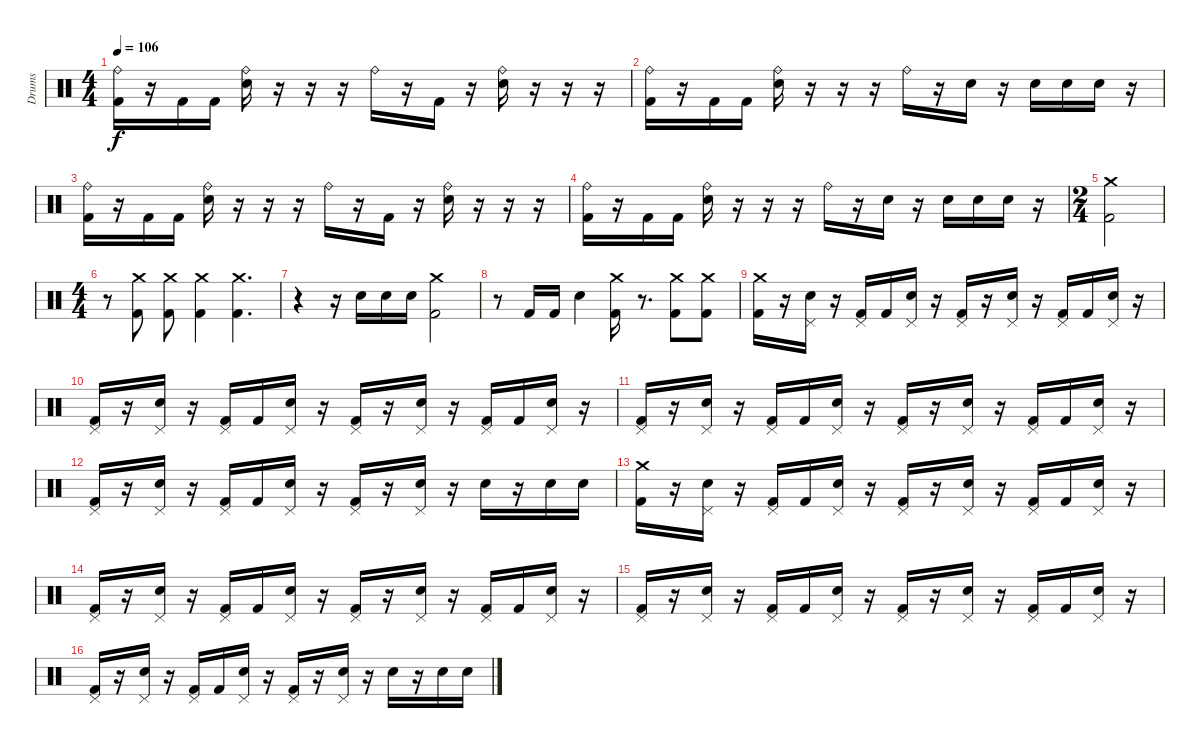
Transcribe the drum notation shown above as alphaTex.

\track ("Drums" "Drums") {instrument percussion}
\staff {score}
\articulation defaults
\ts (4 4)
\tempo 106
\clef neutral
\ks c
("Kick (hit) 2" "Ride (bell)").16{dy f} r.16 "Kick (hit) 2".16 "Kick (hit) 2".16 ("Ride (bell)" "Electric Snare (hit)").16 r.16 r.16 r.16 "Ride (bell)".16 r.16 "Kick (hit) 2".16 r.16 ("Ride (bell)" "Electric Snare (hit)").16 r.16 r.16 r.16 |
("Kick (hit) 2" "Ride (bell)").16 r.16 "Kick (hit) 2".16 "Kick (hit) 2".16 ("Ride (bell)" "Electric Snare (hit)").16 r.16 r.16 r.16 "Ride (bell)".16 r.16 "Electric Snare (hit)".16 r.16 "Electric Snare (hit)".16 "Electric Snare (hit)".16 "Electric Snare (hit)".16 r.16 |
("Kick (hit) 2" "Ride (bell)").16 r.16 "Kick (hit) 2".16 "Kick (hit) 2".16 ("Ride (bell)" "Electric Snare (hit)").16 r.16 r.16 r.16 "Ride (bell)".16 r.16 "Kick (hit) 2".16 r.16 ("Ride (bell)" "Electric Snare (hit)").16 r.16 r.16 r.16 |
("Kick (hit) 2" "Ride (bell)").16 r.16 "Kick (hit) 2".16 "Kick (hit) 2".16 ("Ride (bell)" "Electric Snare (hit)").16 r.16 r.16 r.16 "Ride (bell)".16 r.16 "Electric Snare (hit)".16 r.16 "Electric Snare (hit)".16 "Electric Snare (hit)".16 "Electric Snare (hit)".16 r.16 |
\ts (2 4)
("Kick (hit) 2" "Crash medium (hit)").2 |
\ts (4 4)
r.8 ("Kick (hit) 2" "Crash medium (hit)").8 ("Kick (hit) 2" "Crash medium (hit)").8 ("Kick (hit) 2" "Crash medium (hit)").4 ("Kick (hit) 2" "Crash medium (hit)").4{d} |
r.4 r.16 "Electric Snare (hit)".16 "Electric Snare (hit)".16 "Electric Snare (hit)".16 ("Kick (hit) 2" "Crash medium (hit)").2 |
r.8 "Kick (hit) 2".16 "Kick (hit) 2".16 "Electric Snare (hit)".4 ("Kick (hit) 2" "Crash medium (hit)").16 r.8{d} ("Kick (hit) 2" "Crash medium (hit)").8 ("Kick (hit) 2" "Crash medium (hit)").8 |
("Kick (hit) 2" "Crash medium (hit)").16 r.16 ("Pedal Hi-Hat (hit)" "Electric Snare (hit)").16 r.16 ("Kick (hit) 2" "Pedal Hi-Hat (hit)").16 "Kick (hit) 2".16 ("Pedal Hi-Hat (hit)" "Electric Snare (hit)").16 r.16 ("Kick (hit) 2" "Pedal Hi-Hat (hit)").16 r.16 ("Pedal Hi-Hat (hit)" "Electric Snare (hit)").16 r.16 ("Kick (hit) 2" "Pedal Hi-Hat (hit)").16 "Kick (hit) 2".16 ("Pedal Hi-Hat (hit)" "Electric Snare (hit)").16 r.16 |
("Kick (hit) 2" "Pedal Hi-Hat (hit)").16 r.16 ("Pedal Hi-Hat (hit)" "Electric Snare (hit)").16 r.16 ("Kick (hit) 2" "Pedal Hi-Hat (hit)").16 "Kick (hit) 2".16 ("Pedal Hi-Hat (hit)" "Electric Snare (hit)").16 r.16 ("Kick (hit) 2" "Pedal Hi-Hat (hit)").16 r.16 ("Pedal Hi-Hat (hit)" "Electric Snare (hit)").16 r.16 ("Kick (hit) 2" "Pedal Hi-Hat (hit)").16 "Kick (hit) 2".16 ("Pedal Hi-Hat (hit)" "Electric Snare (hit)").16 r.16 |
("Kick (hit) 2" "Pedal Hi-Hat (hit)").16 r.16 ("Pedal Hi-Hat (hit)" "Electric Snare (hit)").16 r.16 ("Kick (hit) 2" "Pedal Hi-Hat (hit)").16 "Kick (hit) 2".16 ("Pedal Hi-Hat (hit)" "Electric Snare (hit)").16 r.16 ("Kick (hit) 2" "Pedal Hi-Hat (hit)").16 r.16 ("Pedal Hi-Hat (hit)" "Electric Snare (hit)").16 r.16 ("Kick (hit) 2" "Pedal Hi-Hat (hit)").16 "Kick (hit) 2".16 ("Pedal Hi-Hat (hit)" "Electric Snare (hit)").16 r.16 |
("Kick (hit) 2" "Pedal Hi-Hat (hit)").16 r.16 ("Pedal Hi-Hat (hit)" "Electric Snare (hit)").16 r.16 ("Kick (hit) 2" "Pedal Hi-Hat (hit)").16 "Kick (hit) 2".16 ("Pedal Hi-Hat (hit)" "Electric Snare (hit)").16 r.16 ("Kick (hit) 2" "Pedal Hi-Hat (hit)").16 r.16 ("Pedal Hi-Hat (hit)" "Electric Snare (hit)").16 r.16 "Electric Snare (hit)".16 r.16 "Electric Snare (hit)".16 "Electric Snare (hit)".16 |
("Kick (hit) 2" "Crash medium (hit)").16 r.16 ("Pedal Hi-Hat (hit)" "Electric Snare (hit)").16 r.16 ("Kick (hit) 2" "Pedal Hi-Hat (hit)").16 "Kick (hit) 2".16 ("Pedal Hi-Hat (hit)" "Electric Snare (hit)").16 r.16 ("Kick (hit) 2" "Pedal Hi-Hat (hit)").16 r.16 ("Pedal Hi-Hat (hit)" "Electric Snare (hit)").16 r.16 ("Kick (hit) 2" "Pedal Hi-Hat (hit)").16 "Kick (hit) 2".16 ("Pedal Hi-Hat (hit)" "Electric Snare (hit)").16 r.16 |
("Kick (hit) 2" "Pedal Hi-Hat (hit)").16 r.16 ("Pedal Hi-Hat (hit)" "Electric Snare (hit)").16 r.16 ("Kick (hit) 2" "Pedal Hi-Hat (hit)").16 "Kick (hit) 2".16 ("Pedal Hi-Hat (hit)" "Electric Snare (hit)").16 r.16 ("Kick (hit) 2" "Pedal Hi-Hat (hit)").16 r.16 ("Pedal Hi-Hat (hit)" "Electric Snare (hit)").16 r.16 ("Kick (hit) 2" "Pedal Hi-Hat (hit)").16 "Kick (hit) 2".16 ("Pedal Hi-Hat (hit)" "Electric Snare (hit)").16 r.16 |
("Kick (hit) 2" "Pedal Hi-Hat (hit)").16 r.16 ("Pedal Hi-Hat (hit)" "Electric Snare (hit)").16 r.16 ("Kick (hit) 2" "Pedal Hi-Hat (hit)").16 "Kick (hit) 2".16 ("Pedal Hi-Hat (hit)" "Electric Snare (hit)").16 r.16 ("Kick (hit) 2" "Pedal Hi-Hat (hit)").16 r.16 ("Pedal Hi-Hat (hit)" "Electric Snare (hit)").16 r.16 ("Kick (hit) 2" "Pedal Hi-Hat (hit)").16 "Kick (hit) 2".16 ("Pedal Hi-Hat (hit)" "Electric Snare (hit)").16 r.16 |
("Kick (hit) 2" "Pedal Hi-Hat (hit)").16 r.16 ("Pedal Hi-Hat (hit)" "Electric Snare (hit)").16 r.16 ("Kick (hit) 2" "Pedal Hi-Hat (hit)").16 "Kick (hit) 2".16 ("Pedal Hi-Hat (hit)" "Electric Snare (hit)").16 r.16 ("Kick (hit) 2" "Pedal Hi-Hat (hit)").16 r.16 ("Pedal Hi-Hat (hit)" "Electric Snare (hit)").16 r.16 "Electric Snare (hit)".16 r.16 "Electric Snare (hit)".16 "Electric Snare (hit)".16
